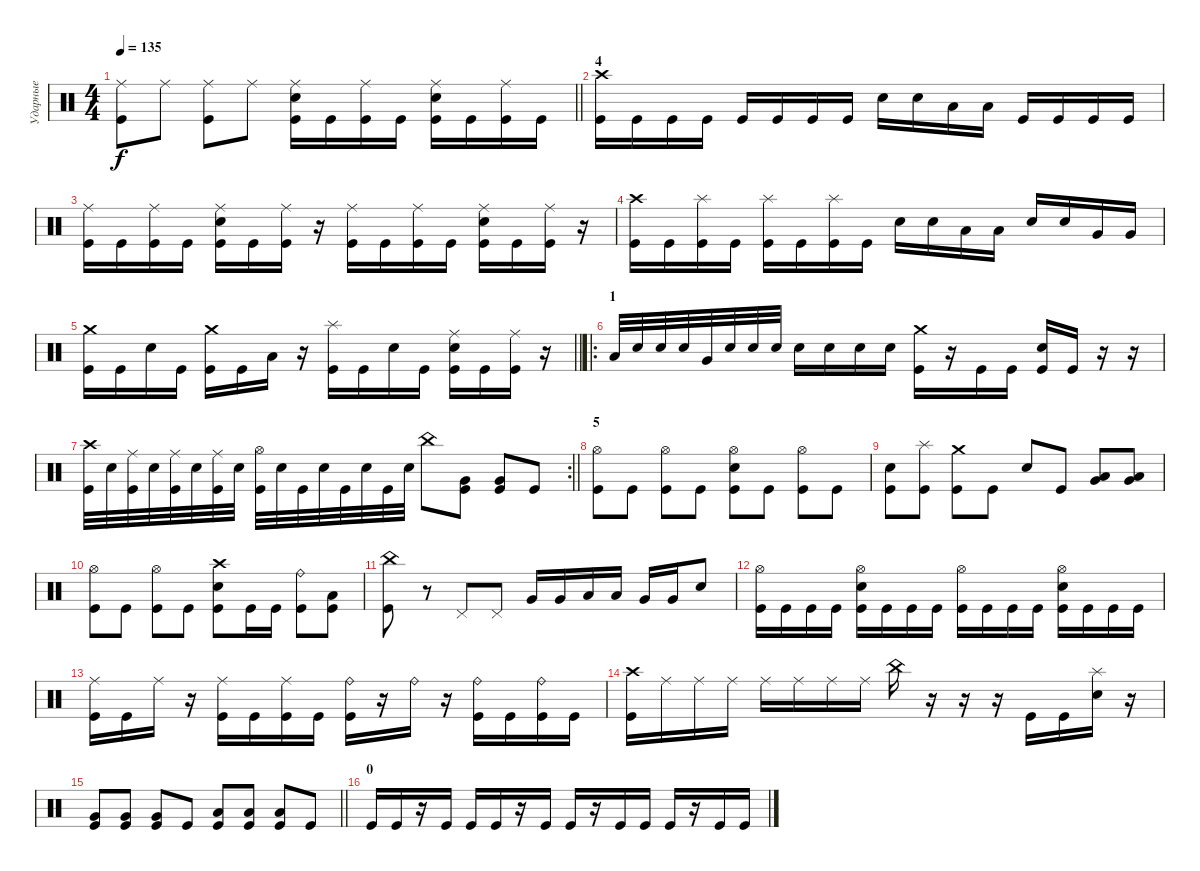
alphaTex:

\track ("Ударные" "Ударные") {instrument percussion}
\staff {score}
\articulation defaults
\ts (4 4)
\tempo 135
\clef neutral
\barLineRight lightlight
\ks c
("Ride (middle)" "Kick (hit)").8{dy f} "Ride (middle)".8 ("Ride (middle)" "Kick (hit)").8 "Ride (middle)".8 ("Ride (middle)" "Electric Snare (hit)" "Kick (hit)").16 "Kick (hit)".16 ("Ride (middle)" "Kick (hit)").16 "Kick (hit)".16 ("Ride (middle)" "Electric Snare (hit)" "Kick (hit)").16 "Kick (hit)".16 ("Ride (middle)" "Kick (hit)").16 "Kick (hit)".16 |
\section ("" "4")
("Crash high (hit)" "Kick (hit)").16 "Kick (hit)".16 "Kick (hit)".16 "Kick (hit)".16 "Kick (hit)".16 "Kick (hit)".16 "Kick (hit)".16 "Kick (hit)".16 "Electric Snare (hit)".16 "Electric Snare (hit)".16 "Low Tom (hit)".16 "Low Tom (hit)".16 "Kick (hit)".16 "Kick (hit)".16 "Kick (hit)".16 "Kick (hit)".16 |
("Ride (middle)" "Kick (hit)").16 "Kick (hit)".16 ("Ride (middle)" "Kick (hit)").16 "Kick (hit)".16 ("Ride (middle)" "Electric Snare (hit)" "Kick (hit)").16 "Kick (hit)".16 ("Ride (middle)" "Kick (hit)").16 r.16 ("Ride (middle)" "Kick (hit)").16 "Kick (hit)".16 ("Ride (middle)" "Kick (hit)").16 "Kick (hit)".16 ("Ride (middle)" "Electric Snare (hit)" "Kick (hit)").16 "Kick (hit)".16 ("Ride (middle)" "Kick (hit)").16 r.16 |
("Crash high (hit)" "Kick (hit)").16 "Kick (hit)".16 ("Splash (hit)" "Kick (hit)").16 "Kick (hit)".16 ("Splash (hit)" "Kick (hit)").16 "Kick (hit)".16 ("Splash (hit)" "Kick (hit)").16 "Kick (hit)".16 "Electric Snare (hit)".16 "Electric Snare (hit)".16 "Low Tom (hit)".16 "Low Tom (hit)".16 "Electric Snare (hit)".16 "Electric Snare (hit)".16 "Very Low Tom (hit)".16 "Very Low Tom (hit)".16 |
\barLineRight lightlight
("Crash medium (hit)" "Kick (hit)").16 "Kick (hit)".16 "Electric Snare (hit)".16 "Kick (hit)".16 ("Crash medium (hit)" "Kick (hit)").16 "Kick (hit)".16 "Low Tom (hit)".16 r.16 ("Splash (hit)" "Kick (hit)").16 "Kick (hit)".16 "Electric Snare (hit)".16 "Kick (hit)".16 ("Ride (middle)" "Electric Snare (hit)" "Kick (hit)").16 "Kick (hit)".16 ("Ride (middle)" "Kick (hit)").16 r.16 |
\ro
\section ("" "1")
"Low Tom (hit)".32 "Electric Snare (hit)".32 "Electric Snare (hit)".32 "Electric Snare (hit)".32 "Very Low Tom (hit)".32 "Electric Snare (hit)".32 "Electric Snare (hit)".32 "Electric Snare (hit)".32 "Electric Snare (hit)".16 "Electric Snare (hit)".16 "Electric Snare (hit)".16 "Electric Snare (hit)".16 ("Crash medium (hit)" "Kick (hit)").16 r.16 "Kick (hit)".16 "Kick (hit)".16 ("Electric Snare (hit)" "Kick (hit)").16 "Kick (hit)".16 r.16 r.16 |
\rc 2
\barLineRight lightlight
("Crash high (hit)" "Kick (hit)").32 "Electric Snare (hit)".32 ("Ride (middle)" "Kick (hit)").32 "Electric Snare (hit)".32 ("Ride (middle)" "Kick (hit)").32 "Electric Snare (hit)".32 ("Ride (middle)" "Kick (hit)").32 "Electric Snare (hit)".32 ("Hi-Hat (open)" "Kick (hit)").32 "Electric Snare (hit)".32 "Kick (hit)".32 "Electric Snare (hit)".32 "Kick (hit)".32 "Electric Snare (hit)".32 "Kick (hit)".32 "Electric Snare (hit)".32 "China (hit)".8 ("Very Low Tom (hit)" "Kick (hit)").8 ("Very Low Tom (hit)" "Kick (hit)").8 "Kick (hit)".8 |
\section ("" "5")
("Hi-Hat (open)" "Kick (hit)").8 "Kick (hit)".8 ("Hi-Hat (open)" "Kick (hit)").8 "Kick (hit)".8 ("Hi-Hat (open)" "Electric Snare (hit)" "Kick (hit)").8 "Kick (hit)".8 ("Hi-Hat (open)" "Kick (hit)").8 "Kick (hit)".8 |
("Electric Snare (hit)" "Kick (hit)").8 ("Splash (hit)" "Kick (hit)").8 ("Crash medium (hit)" "Kick (hit)").8 "Kick (hit)".8 "Electric Snare (hit)".8 "Kick (hit)".8 ("Very Low Tom (hit)" "Low Floor Tom (hit)").8 ("Very Low Tom (hit)" "Low Floor Tom (hit)").8 |
("Hi-Hat (open)" "Kick (hit)").8 "Kick (hit)".8 ("Hi-Hat (open)" "Kick (hit)").8 "Kick (hit)".8 ("Crash high (hit)" "Electric Snare (hit)" "Kick (hit)").8 "Kick (hit)".16 "Kick (hit)".16 ("Ride (bell)" "Kick (hit)").8 ("Low Tom (hit)" "Kick (hit)").8 |
("China (hit)" "Kick (hit)").8 r.8 "Pedal Hi-Hat (hit)".8 "Pedal Hi-Hat (hit)".8 "Very Low Tom (hit)".16 "Very Low Tom (hit)".16 "Low Tom (hit)".16 "Low Tom (hit)".16 "Very Low Tom (hit)".16 "Very Low Tom (hit)".16 "Electric Snare (hit)".8 |
("Hi-Hat (open)" "Kick (hit)").16 "Kick (hit)".16 "Kick (hit)".16 "Kick (hit)".16 ("Hi-Hat (open)" "Electric Snare (hit)" "Kick (hit)").16 "Kick (hit)".16 "Kick (hit)".16 "Kick (hit)".16 ("Hi-Hat (open)" "Kick (hit)").16 "Kick (hit)".16 "Kick (hit)".16 "Kick (hit)".16 ("Hi-Hat (open)" "Electric Snare (hit)" "Kick (hit)").16 "Kick (hit)".16 "Kick (hit)".16 "Kick (hit)".16 |
("Ride (middle)" "Kick (hit)").16 "Kick (hit)".16 "Ride (middle)".16 r.16 ("Ride (middle)" "Kick (hit)").16 "Kick (hit)".16 ("Ride (middle)" "Kick (hit)").16 "Kick (hit)".16 ("Ride (bell)" "Kick (hit)").16 r.16 "Ride (bell)".16 r.16 ("Ride (bell)" "Kick (hit)").16 "Kick (hit)".16 ("Ride (bell)" "Kick (hit)").16 "Kick (hit)".16 |
("Crash high (hit)" "Kick (hit)").16 "Ride (middle)".16 "Ride (middle)".16 "Ride (middle)".16 "Ride (middle)".16 "Ride (middle)".16 "Ride (middle)".16 "Ride (middle)".16 "China (hit)".16 r.16 r.16 r.16 "Kick (hit)".16 "Kick (hit)".16 ("Splash (hit)" "Electric Snare (hit)").16 r.16 |
\barLineRight lightlight
("Very Low Tom (hit)" "Kick (hit)").8 ("Very Low Tom (hit)" "Kick (hit)").8 ("Very Low Tom (hit)" "Kick (hit)").8 "Kick (hit)".8 ("Low Floor Tom (hit)" "Kick (hit)").8 ("Low Floor Tom (hit)" "Kick (hit)").8 ("Low Floor Tom (hit)" "Kick (hit)").8 "Kick (hit)".8 |
\section ("" "0")
"Kick (hit)".16 "Kick (hit)".16 r.16 "Kick (hit)".16 "Kick (hit)".16 "Kick (hit)".16 r.16 "Kick (hit)".16 "Kick (hit)".16 r.16 "Kick (hit)".16 "Kick (hit)".16 "Kick (hit)".16 r.16 "Kick (hit)".16 "Kick (hit)".16
